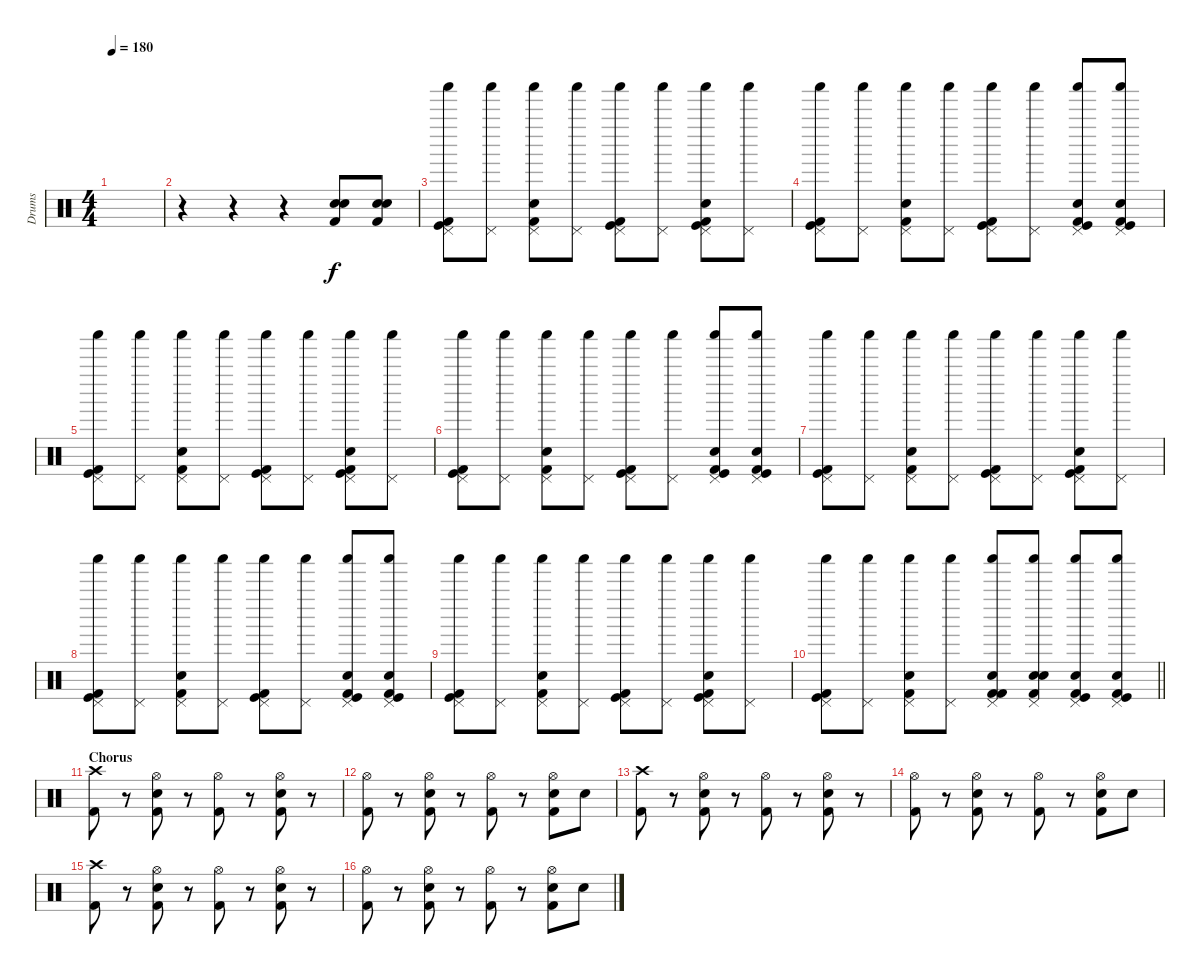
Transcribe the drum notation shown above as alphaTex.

\track ("Drums" "Drums") {instrument percussion}
\staff {score}
\articulation defaults
\ts (4 4)
\tempo 180
\clef neutral
\ks c
|
r.4 r.4 r.4 ("Kick (hit) 2" "Snare (hit) 2" "Electric Snare (hit)").8 ("Kick (hit) 2" "Snare (hit) 2" "Electric Snare (hit)").8 |
("Shaker (hit)" "Pedal Hi-Hat (hit)" "Kick (hit) 2" "Kick (hit)").8{volume 11} ("Shaker (hit)" "Pedal Hi-Hat (hit)").8 ("Kick (hit) 2" "Shaker (hit)" "Pedal Hi-Hat (hit)" "Snare (hit) 2").8 ("Shaker (hit)" "Pedal Hi-Hat (hit)").8 ("Shaker (hit)" "Pedal Hi-Hat (hit)" "Kick (hit) 2" "Kick (hit)").8 ("Shaker (hit)" "Pedal Hi-Hat (hit)").8 ("Kick (hit) 2" "Shaker (hit)" "Pedal Hi-Hat (hit)" "Kick (hit)" "Snare (hit) 2").8 ("Shaker (hit)" "Pedal Hi-Hat (hit)").8 |
("Shaker (hit)" "Pedal Hi-Hat (hit)" "Kick (hit) 2" "Kick (hit)").8{volume 11} ("Shaker (hit)" "Pedal Hi-Hat (hit)").8 ("Kick (hit) 2" "Shaker (hit)" "Pedal Hi-Hat (hit)" "Snare (hit) 2").8 ("Shaker (hit)" "Pedal Hi-Hat (hit)").8 ("Shaker (hit)" "Pedal Hi-Hat (hit)" "Kick (hit) 2" "Kick (hit)").8 ("Shaker (hit)" "Pedal Hi-Hat (hit)").8 ("Kick (hit) 2" "Shaker (hit)" "Pedal Hi-Hat (hit)" "Kick (hit)" "Snare (hit) 2").8 ("Kick (hit) 2" "Shaker (hit)" "Pedal Hi-Hat (hit)" "Kick (hit)" "Snare (hit) 2").8 |
("Shaker (hit)" "Pedal Hi-Hat (hit)" "Kick (hit) 2" "Kick (hit)").8{volume 11} ("Shaker (hit)" "Pedal Hi-Hat (hit)").8 ("Kick (hit) 2" "Shaker (hit)" "Pedal Hi-Hat (hit)" "Snare (hit) 2").8 ("Shaker (hit)" "Pedal Hi-Hat (hit)").8 ("Shaker (hit)" "Pedal Hi-Hat (hit)" "Kick (hit) 2" "Kick (hit)").8 ("Shaker (hit)" "Pedal Hi-Hat (hit)").8 ("Kick (hit) 2" "Shaker (hit)" "Pedal Hi-Hat (hit)" "Kick (hit)" "Snare (hit) 2").8 ("Shaker (hit)" "Pedal Hi-Hat (hit)").8 |
("Shaker (hit)" "Pedal Hi-Hat (hit)" "Kick (hit) 2" "Kick (hit)").8{volume 11} ("Shaker (hit)" "Pedal Hi-Hat (hit)").8 ("Kick (hit) 2" "Shaker (hit)" "Pedal Hi-Hat (hit)" "Snare (hit) 2").8 ("Shaker (hit)" "Pedal Hi-Hat (hit)").8 ("Shaker (hit)" "Pedal Hi-Hat (hit)" "Kick (hit) 2" "Kick (hit)").8 ("Shaker (hit)" "Pedal Hi-Hat (hit)").8 ("Kick (hit) 2" "Shaker (hit)" "Pedal Hi-Hat (hit)" "Kick (hit)" "Snare (hit) 2").8 ("Kick (hit) 2" "Shaker (hit)" "Pedal Hi-Hat (hit)" "Kick (hit)" "Snare (hit) 2").8 |
("Shaker (hit)" "Pedal Hi-Hat (hit)" "Kick (hit) 2" "Kick (hit)").8{volume 11} ("Shaker (hit)" "Pedal Hi-Hat (hit)").8 ("Kick (hit) 2" "Shaker (hit)" "Pedal Hi-Hat (hit)" "Snare (hit) 2").8 ("Shaker (hit)" "Pedal Hi-Hat (hit)").8 ("Shaker (hit)" "Pedal Hi-Hat (hit)" "Kick (hit) 2" "Kick (hit)").8 ("Shaker (hit)" "Pedal Hi-Hat (hit)").8 ("Kick (hit) 2" "Shaker (hit)" "Pedal Hi-Hat (hit)" "Kick (hit)" "Snare (hit) 2").8 ("Shaker (hit)" "Pedal Hi-Hat (hit)").8 |
("Shaker (hit)" "Pedal Hi-Hat (hit)" "Kick (hit) 2" "Kick (hit)").8{volume 11} ("Shaker (hit)" "Pedal Hi-Hat (hit)").8 ("Kick (hit) 2" "Shaker (hit)" "Pedal Hi-Hat (hit)" "Snare (hit) 2").8 ("Shaker (hit)" "Pedal Hi-Hat (hit)").8 ("Shaker (hit)" "Pedal Hi-Hat (hit)" "Kick (hit) 2" "Kick (hit)").8 ("Shaker (hit)" "Pedal Hi-Hat (hit)").8 ("Kick (hit) 2" "Shaker (hit)" "Pedal Hi-Hat (hit)" "Kick (hit)" "Snare (hit) 2").8 ("Kick (hit) 2" "Shaker (hit)" "Pedal Hi-Hat (hit)" "Kick (hit)" "Snare (hit) 2").8 |
("Shaker (hit)" "Pedal Hi-Hat (hit)" "Kick (hit) 2" "Kick (hit)").8{volume 11} ("Shaker (hit)" "Pedal Hi-Hat (hit)").8 ("Kick (hit) 2" "Shaker (hit)" "Pedal Hi-Hat (hit)" "Snare (hit) 2").8 ("Shaker (hit)" "Pedal Hi-Hat (hit)").8 ("Shaker (hit)" "Pedal Hi-Hat (hit)" "Kick (hit) 2" "Kick (hit)").8 ("Shaker (hit)" "Pedal Hi-Hat (hit)").8 ("Kick (hit) 2" "Shaker (hit)" "Pedal Hi-Hat (hit)" "Kick (hit)" "Snare (hit) 2").8 ("Shaker (hit)" "Pedal Hi-Hat (hit)").8 |
\barLineRight lightlight
("Shaker (hit)" "Pedal Hi-Hat (hit)" "Kick (hit) 2" "Kick (hit)").8{volume 11} ("Shaker (hit)" "Pedal Hi-Hat (hit)").8 ("Kick (hit) 2" "Shaker (hit)" "Pedal Hi-Hat (hit)" "Snare (hit) 2").8 ("Shaker (hit)" "Pedal Hi-Hat (hit)").8 ("Kick (hit) 2" "Shaker (hit)" "Pedal Hi-Hat (hit)" "Kick (hit) 2" "Snare (hit) 2").8 ("Kick (hit) 2" "Shaker (hit)" "Pedal Hi-Hat (hit)" "Snare (hit) 2" "Snare (hit) 2").8 ("Kick (hit) 2" "Shaker (hit)" "Pedal Hi-Hat (hit)" "Kick (hit)" "Snare (hit) 2").8 ("Kick (hit) 2" "Shaker (hit)" "Pedal Hi-Hat (hit)" "Kick (hit)" "Snare (hit) 2").8 |
\section ("" "Chorus")
("Kick (hit) 2" "Crash high (hit)").8 r.8 ("Hi-Hat (open)" "Kick (hit) 2" "Snare (hit) 2").8 r.8 ("Hi-Hat (open)" "Kick (hit) 2").8 r.8 ("Hi-Hat (open)" "Kick (hit) 2" "Snare (hit) 2").8 r.8 |
("Kick (hit) 2" "Hi-Hat (open)").8 r.8 ("Hi-Hat (open)" "Kick (hit) 2" "Snare (hit) 2").8 r.8 ("Hi-Hat (open)" "Kick (hit) 2").8 r.8 ("Hi-Hat (open)" "Kick (hit) 2" "Snare (hit) 2").8 "Snare (hit) 2".8 |
("Kick (hit) 2" "Crash high (hit)").8 r.8 ("Hi-Hat (open)" "Kick (hit) 2" "Snare (hit) 2").8 r.8 ("Hi-Hat (open)" "Kick (hit) 2").8 r.8 ("Hi-Hat (open)" "Kick (hit) 2" "Snare (hit) 2").8 r.8 |
("Kick (hit) 2" "Hi-Hat (open)").8 r.8 ("Hi-Hat (open)" "Kick (hit) 2" "Snare (hit) 2").8 r.8 ("Hi-Hat (open)" "Kick (hit) 2").8 r.8 ("Hi-Hat (open)" "Kick (hit) 2" "Snare (hit) 2").8 "Snare (hit) 2".8 |
("Kick (hit) 2" "Crash high (hit)").8 r.8 ("Hi-Hat (open)" "Kick (hit) 2" "Snare (hit) 2").8 r.8 ("Hi-Hat (open)" "Kick (hit) 2").8 r.8 ("Hi-Hat (open)" "Kick (hit) 2" "Snare (hit) 2").8 r.8 |
("Kick (hit) 2" "Hi-Hat (open)").8 r.8 ("Hi-Hat (open)" "Kick (hit) 2" "Snare (hit) 2").8 r.8 ("Hi-Hat (open)" "Kick (hit) 2").8 r.8 ("Hi-Hat (open)" "Kick (hit) 2" "Snare (hit) 2").8 "Snare (hit) 2".8
